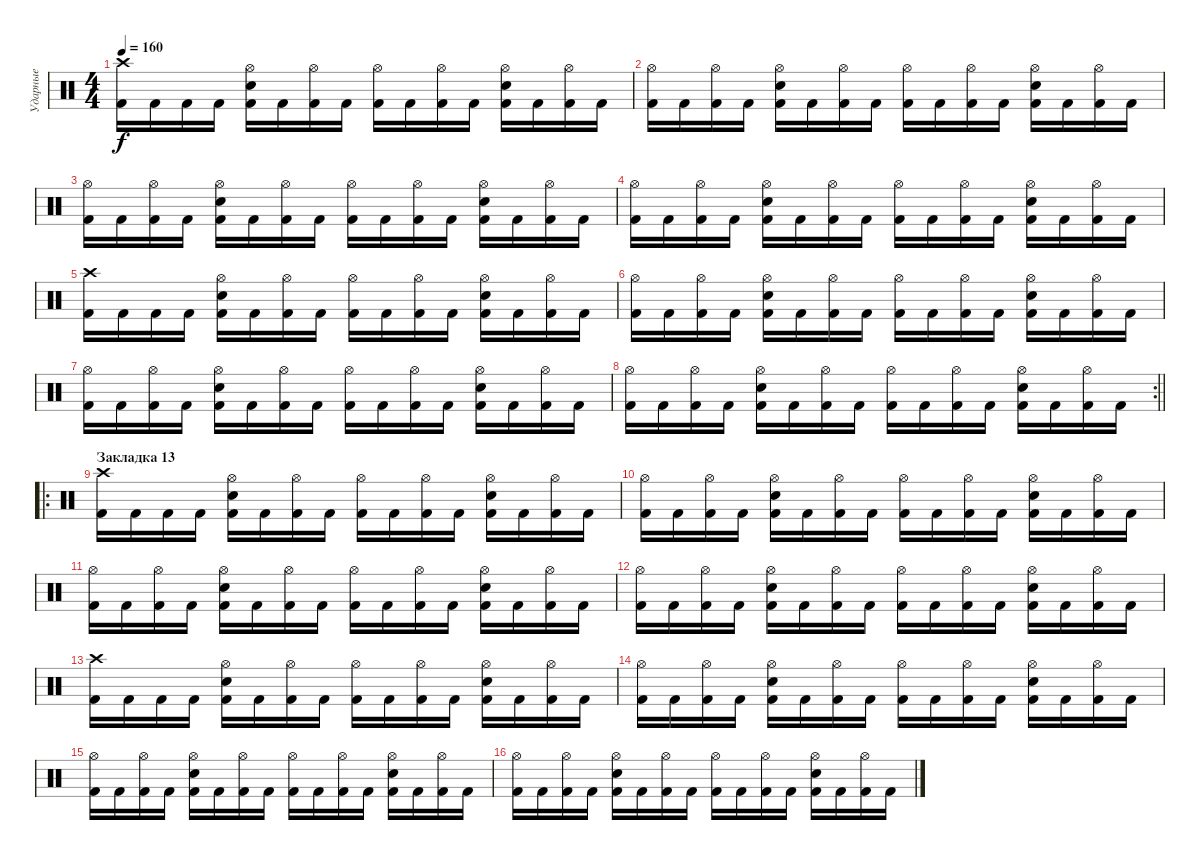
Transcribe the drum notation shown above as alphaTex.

\track ("Ударные" "Ударные") {instrument percussion}
\staff {score}
\articulation defaults
\ts (4 4)
\tempo 160
\clef neutral
\ks c
("Crash high (hit)" "Kick (hit) 2").16{dy f} "Kick (hit) 2".16 "Kick (hit) 2".16 "Kick (hit) 2".16 ("Electric Snare (hit)" "Hi-Hat (open)" "Kick (hit) 2").16 "Kick (hit) 2".16 ("Hi-Hat (open)" "Kick (hit) 2").16 "Kick (hit) 2".16 ("Hi-Hat (open)" "Kick (hit) 2").16 "Kick (hit) 2".16 ("Hi-Hat (open)" "Kick (hit) 2").16 "Kick (hit) 2".16 ("Electric Snare (hit)" "Hi-Hat (open)" "Kick (hit) 2").16 "Kick (hit) 2".16 ("Hi-Hat (open)" "Kick (hit) 2").16 "Kick (hit) 2".16 |
("Hi-Hat (open)" "Kick (hit) 2").16 "Kick (hit) 2".16 ("Hi-Hat (open)" "Kick (hit) 2").16 "Kick (hit) 2".16 ("Electric Snare (hit)" "Hi-Hat (open)" "Kick (hit) 2").16 "Kick (hit) 2".16 ("Hi-Hat (open)" "Kick (hit) 2").16 "Kick (hit) 2".16 ("Hi-Hat (open)" "Kick (hit) 2").16 "Kick (hit) 2".16 ("Hi-Hat (open)" "Kick (hit) 2").16 "Kick (hit) 2".16 ("Electric Snare (hit)" "Hi-Hat (open)" "Kick (hit) 2").16 "Kick (hit) 2".16 ("Hi-Hat (open)" "Kick (hit) 2").16 "Kick (hit) 2".16 |
("Hi-Hat (open)" "Kick (hit) 2").16 "Kick (hit) 2".16 ("Hi-Hat (open)" "Kick (hit) 2").16 "Kick (hit) 2".16 ("Electric Snare (hit)" "Hi-Hat (open)" "Kick (hit) 2").16 "Kick (hit) 2".16 ("Hi-Hat (open)" "Kick (hit) 2").16 "Kick (hit) 2".16 ("Hi-Hat (open)" "Kick (hit) 2").16 "Kick (hit) 2".16 ("Hi-Hat (open)" "Kick (hit) 2").16 "Kick (hit) 2".16 ("Electric Snare (hit)" "Hi-Hat (open)" "Kick (hit) 2").16 "Kick (hit) 2".16 ("Hi-Hat (open)" "Kick (hit) 2").16 "Kick (hit) 2".16 |
("Hi-Hat (open)" "Kick (hit) 2").16 "Kick (hit) 2".16 ("Hi-Hat (open)" "Kick (hit) 2").16 "Kick (hit) 2".16 ("Electric Snare (hit)" "Hi-Hat (open)" "Kick (hit) 2").16 "Kick (hit) 2".16 ("Hi-Hat (open)" "Kick (hit) 2").16 "Kick (hit) 2".16 ("Hi-Hat (open)" "Kick (hit) 2").16 "Kick (hit) 2".16 ("Hi-Hat (open)" "Kick (hit) 2").16 "Kick (hit) 2".16 ("Electric Snare (hit)" "Hi-Hat (open)" "Kick (hit) 2").16 "Kick (hit) 2".16 ("Hi-Hat (open)" "Kick (hit) 2").16 "Kick (hit) 2".16 |
("Crash high (hit)" "Kick (hit) 2").16 "Kick (hit) 2".16 "Kick (hit) 2".16 "Kick (hit) 2".16 ("Electric Snare (hit)" "Hi-Hat (open)" "Kick (hit) 2").16 "Kick (hit) 2".16 ("Hi-Hat (open)" "Kick (hit) 2").16 "Kick (hit) 2".16 ("Hi-Hat (open)" "Kick (hit) 2").16 "Kick (hit) 2".16 ("Hi-Hat (open)" "Kick (hit) 2").16 "Kick (hit) 2".16 ("Electric Snare (hit)" "Hi-Hat (open)" "Kick (hit) 2").16 "Kick (hit) 2".16 ("Hi-Hat (open)" "Kick (hit) 2").16 "Kick (hit) 2".16 |
("Hi-Hat (open)" "Kick (hit) 2").16 "Kick (hit) 2".16 ("Hi-Hat (open)" "Kick (hit) 2").16 "Kick (hit) 2".16 ("Electric Snare (hit)" "Hi-Hat (open)" "Kick (hit) 2").16 "Kick (hit) 2".16 ("Hi-Hat (open)" "Kick (hit) 2").16 "Kick (hit) 2".16 ("Hi-Hat (open)" "Kick (hit) 2").16 "Kick (hit) 2".16 ("Hi-Hat (open)" "Kick (hit) 2").16 "Kick (hit) 2".16 ("Electric Snare (hit)" "Hi-Hat (open)" "Kick (hit) 2").16 "Kick (hit) 2".16 ("Hi-Hat (open)" "Kick (hit) 2").16 "Kick (hit) 2".16 |
("Hi-Hat (open)" "Kick (hit) 2").16 "Kick (hit) 2".16 ("Hi-Hat (open)" "Kick (hit) 2").16 "Kick (hit) 2".16 ("Electric Snare (hit)" "Hi-Hat (open)" "Kick (hit) 2").16 "Kick (hit) 2".16 ("Hi-Hat (open)" "Kick (hit) 2").16 "Kick (hit) 2".16 ("Hi-Hat (open)" "Kick (hit) 2").16 "Kick (hit) 2".16 ("Hi-Hat (open)" "Kick (hit) 2").16 "Kick (hit) 2".16 ("Electric Snare (hit)" "Hi-Hat (open)" "Kick (hit) 2").16 "Kick (hit) 2".16 ("Hi-Hat (open)" "Kick (hit) 2").16 "Kick (hit) 2".16 |
\rc 2
\barLineRight lightlight
("Hi-Hat (open)" "Kick (hit) 2").16 "Kick (hit) 2".16 ("Hi-Hat (open)" "Kick (hit) 2").16 "Kick (hit) 2".16 ("Electric Snare (hit)" "Hi-Hat (open)" "Kick (hit) 2").16 "Kick (hit) 2".16 ("Hi-Hat (open)" "Kick (hit) 2").16 "Kick (hit) 2".16 ("Hi-Hat (open)" "Kick (hit) 2").16 "Kick (hit) 2".16 ("Hi-Hat (open)" "Kick (hit) 2").16 "Kick (hit) 2".16 ("Electric Snare (hit)" "Hi-Hat (open)" "Kick (hit) 2").16 "Kick (hit) 2".16 ("Hi-Hat (open)" "Kick (hit) 2").16 "Kick (hit) 2".16 |
\ro
\section ("" "Закладка 13")
("Crash high (hit)" "Kick (hit) 2").16 "Kick (hit) 2".16 "Kick (hit) 2".16 "Kick (hit) 2".16 ("Electric Snare (hit)" "Hi-Hat (open)" "Kick (hit) 2").16 "Kick (hit) 2".16 ("Hi-Hat (open)" "Kick (hit) 2").16 "Kick (hit) 2".16 ("Hi-Hat (open)" "Kick (hit) 2").16 "Kick (hit) 2".16 ("Hi-Hat (open)" "Kick (hit) 2").16 "Kick (hit) 2".16 ("Electric Snare (hit)" "Hi-Hat (open)" "Kick (hit) 2").16 "Kick (hit) 2".16 ("Hi-Hat (open)" "Kick (hit) 2").16 "Kick (hit) 2".16 |
("Hi-Hat (open)" "Kick (hit) 2").16 "Kick (hit) 2".16 ("Hi-Hat (open)" "Kick (hit) 2").16 "Kick (hit) 2".16 ("Electric Snare (hit)" "Hi-Hat (open)" "Kick (hit) 2").16 "Kick (hit) 2".16 ("Hi-Hat (open)" "Kick (hit) 2").16 "Kick (hit) 2".16 ("Hi-Hat (open)" "Kick (hit) 2").16 "Kick (hit) 2".16 ("Hi-Hat (open)" "Kick (hit) 2").16 "Kick (hit) 2".16 ("Electric Snare (hit)" "Hi-Hat (open)" "Kick (hit) 2").16 "Kick (hit) 2".16 ("Hi-Hat (open)" "Kick (hit) 2").16 "Kick (hit) 2".16 |
("Hi-Hat (open)" "Kick (hit) 2").16 "Kick (hit) 2".16 ("Hi-Hat (open)" "Kick (hit) 2").16 "Kick (hit) 2".16 ("Electric Snare (hit)" "Hi-Hat (open)" "Kick (hit) 2").16 "Kick (hit) 2".16 ("Hi-Hat (open)" "Kick (hit) 2").16 "Kick (hit) 2".16 ("Hi-Hat (open)" "Kick (hit) 2").16 "Kick (hit) 2".16 ("Hi-Hat (open)" "Kick (hit) 2").16 "Kick (hit) 2".16 ("Electric Snare (hit)" "Hi-Hat (open)" "Kick (hit) 2").16 "Kick (hit) 2".16 ("Hi-Hat (open)" "Kick (hit) 2").16 "Kick (hit) 2".16 |
("Hi-Hat (open)" "Kick (hit) 2").16 "Kick (hit) 2".16 ("Hi-Hat (open)" "Kick (hit) 2").16 "Kick (hit) 2".16 ("Electric Snare (hit)" "Hi-Hat (open)" "Kick (hit) 2").16 "Kick (hit) 2".16 ("Hi-Hat (open)" "Kick (hit) 2").16 "Kick (hit) 2".16 ("Hi-Hat (open)" "Kick (hit) 2").16 "Kick (hit) 2".16 ("Hi-Hat (open)" "Kick (hit) 2").16 "Kick (hit) 2".16 ("Electric Snare (hit)" "Hi-Hat (open)" "Kick (hit) 2").16 "Kick (hit) 2".16 ("Hi-Hat (open)" "Kick (hit) 2").16 "Kick (hit) 2".16 |
("Crash high (hit)" "Kick (hit) 2").16 "Kick (hit) 2".16 "Kick (hit) 2".16 "Kick (hit) 2".16 ("Electric Snare (hit)" "Hi-Hat (open)" "Kick (hit) 2").16 "Kick (hit) 2".16 ("Hi-Hat (open)" "Kick (hit) 2").16 "Kick (hit) 2".16 ("Hi-Hat (open)" "Kick (hit) 2").16 "Kick (hit) 2".16 ("Hi-Hat (open)" "Kick (hit) 2").16 "Kick (hit) 2".16 ("Electric Snare (hit)" "Hi-Hat (open)" "Kick (hit) 2").16 "Kick (hit) 2".16 ("Hi-Hat (open)" "Kick (hit) 2").16 "Kick (hit) 2".16 |
("Hi-Hat (open)" "Kick (hit) 2").16 "Kick (hit) 2".16 ("Hi-Hat (open)" "Kick (hit) 2").16 "Kick (hit) 2".16 ("Electric Snare (hit)" "Hi-Hat (open)" "Kick (hit) 2").16 "Kick (hit) 2".16 ("Hi-Hat (open)" "Kick (hit) 2").16 "Kick (hit) 2".16 ("Hi-Hat (open)" "Kick (hit) 2").16 "Kick (hit) 2".16 ("Hi-Hat (open)" "Kick (hit) 2").16 "Kick (hit) 2".16 ("Electric Snare (hit)" "Hi-Hat (open)" "Kick (hit) 2").16 "Kick (hit) 2".16 ("Hi-Hat (open)" "Kick (hit) 2").16 "Kick (hit) 2".16 |
("Hi-Hat (open)" "Kick (hit) 2").16 "Kick (hit) 2".16 ("Hi-Hat (open)" "Kick (hit) 2").16 "Kick (hit) 2".16 ("Electric Snare (hit)" "Hi-Hat (open)" "Kick (hit) 2").16 "Kick (hit) 2".16 ("Hi-Hat (open)" "Kick (hit) 2").16 "Kick (hit) 2".16 ("Hi-Hat (open)" "Kick (hit) 2").16 "Kick (hit) 2".16 ("Hi-Hat (open)" "Kick (hit) 2").16 "Kick (hit) 2".16 ("Electric Snare (hit)" "Hi-Hat (open)" "Kick (hit) 2").16 "Kick (hit) 2".16 ("Hi-Hat (open)" "Kick (hit) 2").16 "Kick (hit) 2".16 |
("Hi-Hat (open)" "Kick (hit) 2").16 "Kick (hit) 2".16 ("Hi-Hat (open)" "Kick (hit) 2").16 "Kick (hit) 2".16 ("Electric Snare (hit)" "Hi-Hat (open)" "Kick (hit) 2").16 "Kick (hit) 2".16 ("Hi-Hat (open)" "Kick (hit) 2").16 "Kick (hit) 2".16 ("Hi-Hat (open)" "Kick (hit) 2").16 "Kick (hit) 2".16 ("Hi-Hat (open)" "Kick (hit) 2").16 "Kick (hit) 2".16 ("Electric Snare (hit)" "Hi-Hat (open)" "Kick (hit) 2").16 "Kick (hit) 2".16 ("Hi-Hat (open)" "Kick (hit) 2").16 "Kick (hit) 2".16
